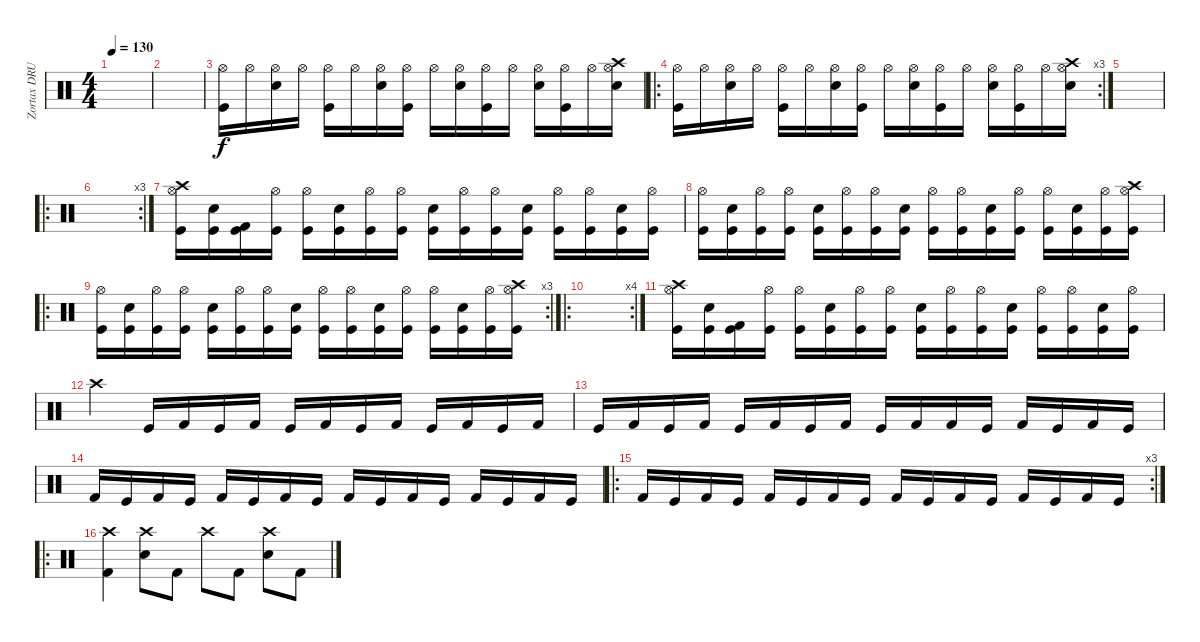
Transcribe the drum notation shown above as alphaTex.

\track ("Zortax DRUMS" "Zortax DRU") {instrument percussion}
\staff {score}
\articulation defaults
\ts (4 4)
\tempo 130
\clef neutral
\ks c
|
|
("Hi-Hat (open)" "Kick (hit)").16 "Hi-Hat (open)".16 ("Hi-Hat (open)" "Snare (hit) 2").16 "Hi-Hat (open)".16 ("Hi-Hat (open)" "Kick (hit)").16 "Hi-Hat (open)".16 ("Hi-Hat (open)" "Snare (hit) 2").16 ("Hi-Hat (open)" "Kick (hit)").16 "Hi-Hat (open)".16 ("Hi-Hat (open)" "Snare (hit) 2").16 ("Hi-Hat (open)" "Kick (hit)").16 "Hi-Hat (open)".16 ("Hi-Hat (open)" "Snare (hit) 2").16 ("Hi-Hat (open)" "Kick (hit)").16 "Hi-Hat (open)".16 ("Hi-Hat (open)" "Snare (hit) 2" "Crash high (hit)").16 |
\ro
\rc 3
("Hi-Hat (open)" "Kick (hit)").16 "Hi-Hat (open)".16 ("Hi-Hat (open)" "Snare (hit) 2").16 "Hi-Hat (open)".16 ("Hi-Hat (open)" "Kick (hit)").16 "Hi-Hat (open)".16 ("Hi-Hat (open)" "Snare (hit) 2").16 ("Hi-Hat (open)" "Kick (hit)").16 "Hi-Hat (open)".16 ("Hi-Hat (open)" "Snare (hit) 2").16 ("Hi-Hat (open)" "Kick (hit)").16 "Hi-Hat (open)".16 ("Hi-Hat (open)" "Snare (hit) 2").16 ("Hi-Hat (open)" "Kick (hit)").16 "Hi-Hat (open)".16 ("Hi-Hat (open)" "Snare (hit) 2" "Crash high (hit)").16 |
|
\ro
\rc 3
|
("Crash high (hit)" "Kick (hit)" "Hi-Hat (open)").16 ("Kick (hit)" "Snare (hit) 2").16 ("Kick (hit)" "Kick (hit) 2").16 ("Kick (hit)" "Hi-Hat (open)").16 ("Kick (hit)" "Hi-Hat (open)").16 ("Kick (hit)" "Snare (hit) 2").16 ("Kick (hit)" "Hi-Hat (open)").16 ("Kick (hit)" "Hi-Hat (open)").16 ("Kick (hit)" "Snare (hit) 2").16 ("Kick (hit)" "Hi-Hat (open)").16 ("Kick (hit)" "Hi-Hat (open)").16 ("Kick (hit)" "Snare (hit) 2").16 ("Kick (hit)" "Hi-Hat (open)").16 ("Kick (hit)" "Hi-Hat (open)").16 ("Kick (hit)" "Snare (hit) 2").16 ("Kick (hit)" "Hi-Hat (open)").16 |
("Kick (hit)" "Hi-Hat (open)").16 ("Kick (hit)" "Snare (hit) 2").16 ("Kick (hit)" "Hi-Hat (open)").16 ("Kick (hit)" "Hi-Hat (open)").16 ("Kick (hit)" "Snare (hit) 2").16 ("Kick (hit)" "Hi-Hat (open)").16 ("Kick (hit)" "Hi-Hat (open)").16 ("Kick (hit)" "Snare (hit) 2").16 ("Kick (hit)" "Hi-Hat (open)").16 ("Kick (hit)" "Hi-Hat (open)").16 ("Kick (hit)" "Snare (hit) 2").16 ("Kick (hit)" "Hi-Hat (open)").16 ("Kick (hit)" "Hi-Hat (open)").16 ("Kick (hit)" "Snare (hit) 2").16 ("Kick (hit)" "Hi-Hat (open)").16 ("Kick (hit)" "Hi-Hat (open)" "Crash high (hit)").16 |
\ro
\rc 3
("Kick (hit)" "Hi-Hat (open)").16 ("Kick (hit)" "Snare (hit) 2").16 ("Kick (hit)" "Hi-Hat (open)").16 ("Kick (hit)" "Hi-Hat (open)").16 ("Kick (hit)" "Snare (hit) 2").16 ("Kick (hit)" "Hi-Hat (open)").16 ("Kick (hit)" "Hi-Hat (open)").16 ("Kick (hit)" "Snare (hit) 2").16 ("Kick (hit)" "Hi-Hat (open)").16 ("Kick (hit)" "Hi-Hat (open)").16 ("Kick (hit)" "Snare (hit) 2").16 ("Kick (hit)" "Hi-Hat (open)").16 ("Kick (hit)" "Hi-Hat (open)").16 ("Kick (hit)" "Snare (hit) 2").16 ("Kick (hit)" "Hi-Hat (open)").16 ("Kick (hit)" "Hi-Hat (open)" "Crash high (hit)").16 |
\ro
\rc 4
|
("Crash high (hit)" "Kick (hit)" "Hi-Hat (open)").16 ("Kick (hit)" "Snare (hit) 2").16 ("Kick (hit)" "Kick (hit) 2").16 ("Kick (hit)" "Hi-Hat (open)").16 ("Kick (hit)" "Hi-Hat (open)").16 ("Kick (hit)" "Snare (hit) 2").16 ("Kick (hit)" "Hi-Hat (open)").16 ("Kick (hit)" "Hi-Hat (open)").16 ("Kick (hit)" "Snare (hit) 2").16 ("Kick (hit)" "Hi-Hat (open)").16 ("Kick (hit)" "Hi-Hat (open)").16 ("Kick (hit)" "Snare (hit) 2").16 ("Kick (hit)" "Hi-Hat (open)").16 ("Kick (hit)" "Hi-Hat (open)").16 ("Kick (hit)" "Snare (hit) 2").16 ("Kick (hit)" "Hi-Hat (open)").16 |
"Crash high (hit)".4 "Kick (hit)".16 "Kick (hit) 2".16 "Kick (hit)".16 "Kick (hit) 2".16 "Kick (hit)".16 "Kick (hit) 2".16 "Kick (hit)".16 "Kick (hit) 2".16 "Kick (hit)".16 "Kick (hit) 2".16 "Kick (hit)".16 "Kick (hit) 2".16 |
"Kick (hit)".16 "Kick (hit) 2".16 "Kick (hit)".16 "Kick (hit) 2".16 "Kick (hit)".16 "Kick (hit) 2".16 "Kick (hit)".16 "Kick (hit) 2".16 "Kick (hit)".16 "Kick (hit) 2".16 "Kick (hit) 2".16 "Kick (hit)".16 "Kick (hit) 2".16 "Kick (hit)".16 "Kick (hit) 2".16 "Kick (hit)".16 |
"Kick (hit) 2".16 "Kick (hit)".16 "Kick (hit) 2".16 "Kick (hit)".16 "Kick (hit) 2".16 "Kick (hit)".16 "Kick (hit) 2".16 "Kick (hit)".16 "Kick (hit) 2".16 "Kick (hit)".16 "Kick (hit) 2".16 "Kick (hit)".16 "Kick (hit) 2".16 "Kick (hit)".16 "Kick (hit) 2".16 "Kick (hit)".16 |
\ro
\rc 3 "Kick (hit) 2".16 "Kick (hit)".16 "Kick (hit) 2".16 "Kick (hit)".16 "Kick (hit) 2".16 "Kick (hit)".16 "Kick (hit) 2".16 "Kick (hit)".16 "Kick (hit) 2".16 "Kick (hit)".16 "Kick (hit) 2".16 "Kick (hit)".16 "Kick (hit) 2".16 "Kick (hit)".16 "Kick (hit) 2".16 "Kick (hit)".16
|
\ro
("Crash high (hit)" "Kick (hit) 2").4 ("Crash high (hit)" "Snare (hit) 2").8 "Kick (hit) 2".8 "Crash high (hit)".8 "Kick (hit) 2".8 ("Crash high (hit)" "Snare (hit) 2").8 "Kick (hit) 2".8
